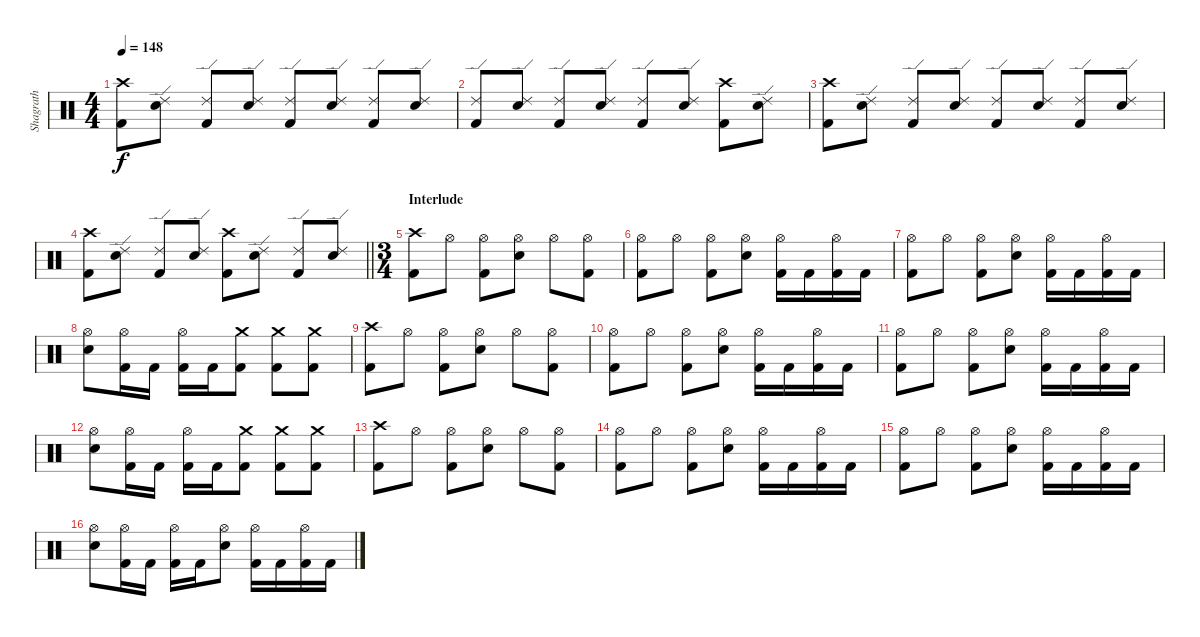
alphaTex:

\track ("Shagrath" "Shagrath") {instrument percussion}
\staff {score}
\articulation defaults
\ts (4 4)
\tempo 148
\clef neutral
\ks c
("Crash high (hit)" "Kick (hit) 2").8{dy f} ("Ride (edge) 2" "Electric Snare (hit)").8 ("Ride (edge) 2" "Kick (hit) 2").8 ("Ride (edge) 2" "Electric Snare (hit)").8 ("Ride (edge) 2" "Kick (hit) 2").8 ("Ride (edge) 2" "Electric Snare (hit)").8 ("Ride (edge) 2" "Kick (hit) 2").8 ("Ride (edge) 2" "Electric Snare (hit)").8 |
("Ride (edge) 2" "Kick (hit) 2").8 ("Ride (edge) 2" "Electric Snare (hit)").8 ("Ride (edge) 2" "Kick (hit) 2").8 ("Ride (edge) 2" "Electric Snare (hit)").8 ("Ride (edge) 2" "Kick (hit) 2").8 ("Ride (edge) 2" "Electric Snare (hit)").8 ("Crash high (hit)" "Kick (hit) 2").8 ("Ride (edge) 2" "Electric Snare (hit)").8 |
("Crash high (hit)" "Kick (hit) 2").8 ("Ride (edge) 2" "Electric Snare (hit)").8 ("Ride (edge) 2" "Kick (hit) 2").8 ("Ride (edge) 2" "Electric Snare (hit)").8 ("Ride (edge) 2" "Kick (hit) 2").8 ("Ride (edge) 2" "Electric Snare (hit)").8 ("Ride (edge) 2" "Kick (hit) 2").8 ("Ride (edge) 2" "Electric Snare (hit)").8 |
\barLineRight lightlight
("Crash high (hit)" "Kick (hit) 2").8 ("Ride (edge) 2" "Electric Snare (hit)").8 ("Ride (edge) 2" "Kick (hit) 2").8 ("Ride (edge) 2" "Electric Snare (hit)").8 ("Crash high (hit)" "Kick (hit) 2").8 ("Ride (edge) 2" "Electric Snare (hit)").8 ("Ride (edge) 2" "Kick (hit) 2").8 ("Ride (edge) 2" "Electric Snare (hit)").8 |
\ts (3 4)
\section ("" "Interlude")
("Crash high (hit)" "Kick (hit) 2").8 "Hi-Hat (open)".8 ("Hi-Hat (open)" "Kick (hit) 2").8 ("Hi-Hat (open)" "Electric Snare (hit)").8 "Hi-Hat (open)".8 ("Hi-Hat (open)" "Kick (hit) 2").8 |
("Hi-Hat (open)" "Kick (hit) 2").8 "Hi-Hat (open)".8 ("Hi-Hat (open)" "Kick (hit) 2").8 ("Hi-Hat (open)" "Electric Snare (hit)").8 ("Hi-Hat (open)" "Kick (hit) 2").16 "Kick (hit) 2".16 ("Hi-Hat (open)" "Kick (hit) 2").16 "Kick (hit) 2".16 |
("Hi-Hat (open)" "Kick (hit) 2").8 "Hi-Hat (open)".8 ("Hi-Hat (open)" "Kick (hit) 2").8 ("Hi-Hat (open)" "Electric Snare (hit)").8 ("Hi-Hat (open)" "Kick (hit) 2").16 "Kick (hit) 2".16 ("Hi-Hat (open)" "Kick (hit) 2").16 "Kick (hit) 2".16 |
("Hi-Hat (open)" "Electric Snare (hit)").8 ("Hi-Hat (open)" "Kick (hit) 2").16 "Kick (hit) 2".16 ("Hi-Hat (open)" "Kick (hit) 2").16 "Kick (hit) 2".16 ("Crash medium (hit)" "Kick (hit) 2").8 ("Crash medium (hit)" "Kick (hit) 2").8 ("Crash medium (hit)" "Kick (hit) 2").8 |
("Crash high (hit)" "Kick (hit) 2").8 "Hi-Hat (open)".8 ("Hi-Hat (open)" "Kick (hit) 2").8 ("Hi-Hat (open)" "Electric Snare (hit)").8 "Hi-Hat (open)".8 ("Hi-Hat (open)" "Kick (hit) 2").8 |
("Hi-Hat (open)" "Kick (hit) 2").8 "Hi-Hat (open)".8 ("Hi-Hat (open)" "Kick (hit) 2").8 ("Hi-Hat (open)" "Electric Snare (hit)").8 ("Hi-Hat (open)" "Kick (hit) 2").16 "Kick (hit) 2".16 ("Hi-Hat (open)" "Kick (hit) 2").16 "Kick (hit) 2".16 |
("Hi-Hat (open)" "Kick (hit) 2").8 "Hi-Hat (open)".8 ("Hi-Hat (open)" "Kick (hit) 2").8 ("Hi-Hat (open)" "Electric Snare (hit)").8 ("Hi-Hat (open)" "Kick (hit) 2").16 "Kick (hit) 2".16 ("Hi-Hat (open)" "Kick (hit) 2").16 "Kick (hit) 2".16 |
("Hi-Hat (open)" "Electric Snare (hit)").8 ("Hi-Hat (open)" "Kick (hit) 2").16 "Kick (hit) 2".16 ("Hi-Hat (open)" "Kick (hit) 2").16 "Kick (hit) 2".16 ("Crash medium (hit)" "Kick (hit) 2").8 ("Crash medium (hit)" "Kick (hit) 2").8 ("Crash medium (hit)" "Kick (hit) 2").8 |
("Crash high (hit)" "Kick (hit) 2").8 "Hi-Hat (open)".8 ("Hi-Hat (open)" "Kick (hit) 2").8 ("Hi-Hat (open)" "Electric Snare (hit)").8 "Hi-Hat (open)".8 ("Hi-Hat (open)" "Kick (hit) 2").8 |
("Hi-Hat (open)" "Kick (hit) 2").8 "Hi-Hat (open)".8 ("Hi-Hat (open)" "Kick (hit) 2").8 ("Hi-Hat (open)" "Electric Snare (hit)").8 ("Hi-Hat (open)" "Kick (hit) 2").16 "Kick (hit) 2".16 ("Hi-Hat (open)" "Kick (hit) 2").16 "Kick (hit) 2".16 |
("Hi-Hat (open)" "Kick (hit) 2").8 "Hi-Hat (open)".8 ("Hi-Hat (open)" "Kick (hit) 2").8 ("Hi-Hat (open)" "Electric Snare (hit)").8 ("Hi-Hat (open)" "Kick (hit) 2").16 "Kick (hit) 2".16 ("Hi-Hat (open)" "Kick (hit) 2").16 "Kick (hit) 2".16 |
("Hi-Hat (open)" "Electric Snare (hit)").8 ("Hi-Hat (open)" "Kick (hit) 2").16 "Kick (hit) 2".16 ("Hi-Hat (open)" "Kick (hit) 2").16 "Kick (hit) 2".16 ("Hi-Hat (open)" "Electric Snare (hit)").8 ("Hi-Hat (open)" "Kick (hit) 2").16 "Kick (hit) 2".16 ("Hi-Hat (open)" "Kick (hit) 2").16 "Kick (hit) 2".16
